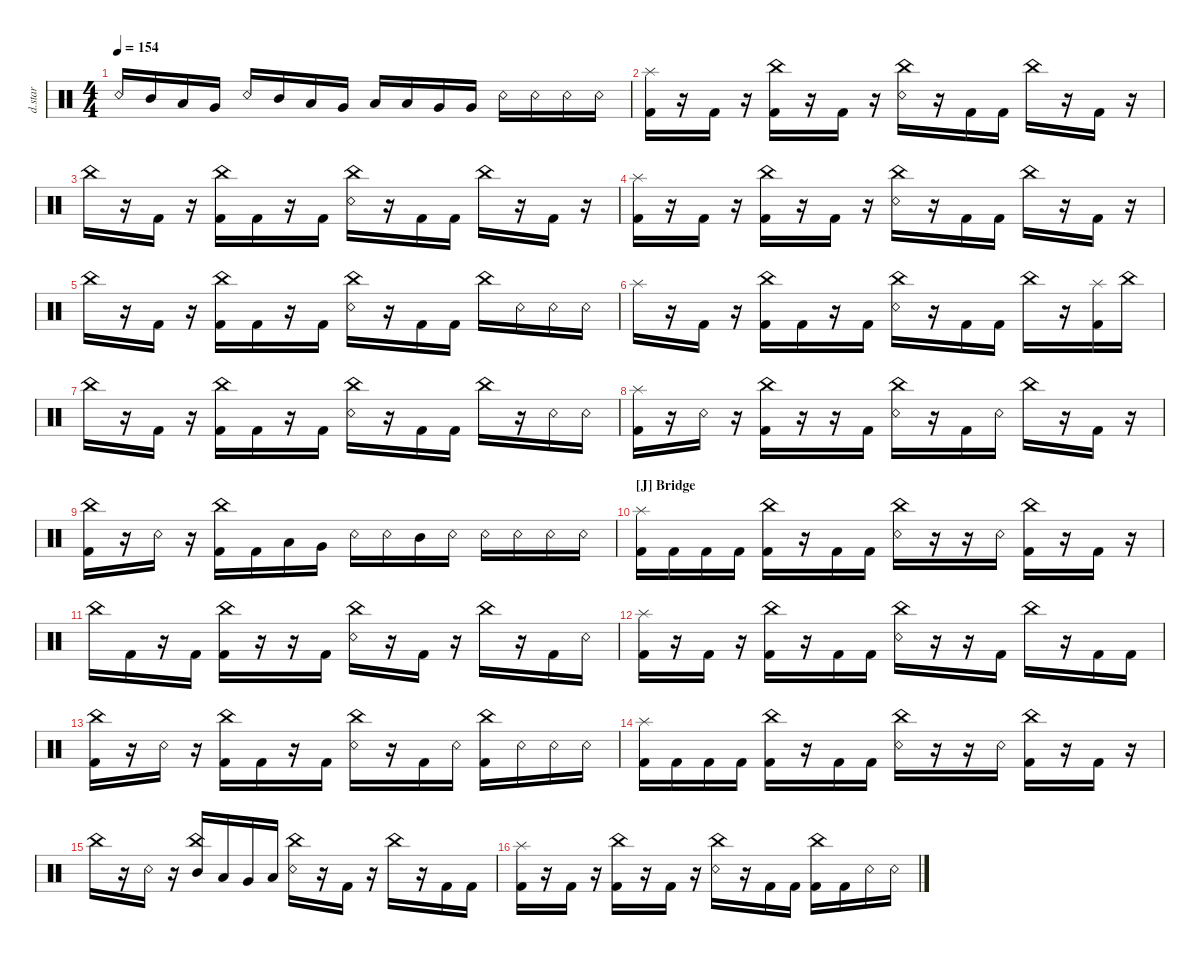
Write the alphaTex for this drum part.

\defaultSystemsLayout 4
\hideDynamics
\bracketExtendMode nobrackets
\otherSystemsTrackNameOrientation horizontal
\track ("Drumkit Star" "d.star") {instrument percussion}
\staff {score}
\articulation defaults
\ts (4 4)
\tempo 154
\clef neutral
\ks c "Snare (rim shot)".16{dy ff beam Up} "Mid Tom (hit)".16{beam Up} "Low Tom (hit)".16{beam Up} "Very Low Tom (hit)".16{beam Up} "Snare (rim shot)".16{beam Up} "Mid Tom (hit)".16{beam Up} "Low Tom (hit)".16{beam Up} "Very Low Tom (hit)".16{beam Up} "Low Tom (hit)".16{beam Up} "Low Tom (hit)".16{beam Up} "Very Low Tom (hit)".16{beam Up} "Very Low Tom (hit)".16{beam Up} "Snare (rim shot)".16{beam Down} "Snare (rim shot)".16{beam Down} "Snare (rim shot)".16{beam Down} "Snare (rim shot)".16{beam Down}
|
("Kick (hit) 2" "Splash (hit)").16{beam Down} r.16{beam Down} "Kick (hit) 2".16{beam Down} r.16{beam Down} ("Kick (hit) 2" "China (hit)").16{beam Down} r.16{beam Down} "Kick (hit) 2".16{beam Down} r.16{beam Down} ("Snare (rim shot)" "China (hit)").16{beam Down} r.16{beam Down} "Kick (hit) 2".16{beam Down} "Kick (hit) 2".16{beam Down} "China (hit)".16{beam Down} r.16{beam Down} "Kick (hit) 2".16{beam Down} r.16{beam Down} |
"China (hit)".16{beam Down} r.16{beam Down} "Kick (hit) 2".16{beam Down} r.16{beam Down} ("Kick (hit) 2" "China (hit)").16{beam Down} "Kick (hit) 2".16{beam Down} r.16{beam Down} "Kick (hit) 2".16{beam Down} ("Snare (rim shot)" "China (hit)").16{beam Down} r.16{beam Down} "Kick (hit) 2".16{beam Down} "Kick (hit) 2".16{beam Down} "China (hit)".16{beam Down} r.16{beam Down} "Kick (hit) 2".16{beam Down} r.16{beam Down} |
("Kick (hit) 2" "Splash (hit)").16{beam Down} r.16{beam Down} "Kick (hit) 2".16{beam Down} r.16{beam Down} ("Kick (hit) 2" "China (hit)").16{beam Down} r.16{beam Down} "Kick (hit) 2".16{beam Down} r.16{beam Down} ("Snare (rim shot)" "China (hit)").16{beam Down} r.16{beam Down} "Kick (hit) 2".16{beam Down} "Kick (hit) 2".16{beam Down} "China (hit)".16{beam Down} r.16{beam Down} "Kick (hit) 2".16{beam Down} r.16{beam Down} |
"China (hit)".16{beam Down} r.16{beam Down} "Kick (hit) 2".16{beam Down} r.16{beam Down} ("Kick (hit) 2" "China (hit)").16{beam Down} "Kick (hit) 2".16{beam Down} r.16{beam Down} "Kick (hit) 2".16{beam Down} ("Snare (rim shot)" "China (hit)").16{beam Down} r.16{beam Down} "Kick (hit) 2".16{beam Down} "Kick (hit) 2".16{beam Down} "China (hit)".16{beam Down} "Snare (rim shot)".16{beam Down} "Snare (rim shot)".16{beam Down} "Snare (rim shot)".16{beam Down} |
"Splash (hit)".16{beam Down} r.16{beam Down} "Kick (hit) 2".16{beam Down} r.16{beam Down} ("Kick (hit) 2" "China (hit)").16{beam Down} "Kick (hit) 2".16{beam Down} r.16{beam Down} "Kick (hit) 2".16{beam Down} ("Snare (rim shot)" "China (hit)").16{beam Down} r.16{beam Down} "Kick (hit) 2".16{beam Down} "Kick (hit) 2".16{beam Down} "China (hit)".16{beam Down} r.16{beam Down} ("Splash (hit)" "Kick (hit) 2").16{beam Down} "China (hit)".16{beam Down} |
"China (hit)".16{beam Down} r.16{beam Down} "Kick (hit) 2".16{beam Down} r.16{beam Down} ("Kick (hit) 2" "China (hit)").16{beam Down} "Kick (hit) 2".16{beam Down} r.16{beam Down} "Kick (hit) 2".16{beam Down} ("Snare (rim shot)" "China (hit)").16{beam Down} r.16{beam Down} "Kick (hit) 2".16{beam Down} "Kick (hit) 2".16{beam Down} "China (hit)".16{beam Down} r.16{beam Down} "Snare (rim shot)".16{beam Down} "Snare (rim shot)".16{beam Down} |
("Kick (hit) 2" "Splash (hit)").16{beam Down} r.16{beam Down} "Snare (rim shot)".16{beam Down} r.16{beam Down} ("Kick (hit) 2" "China (hit)").16{beam Down} r.16{beam Down} r.16{beam Down} "Kick (hit) 2".16{beam Down} ("Snare (rim shot)" "China (hit)").16{beam Down} r.16{beam Down} "Kick (hit) 2".16{beam Down} "Snare (rim shot)".16{beam Down} "China (hit)".16{beam Down} r.16{beam Down} "Kick (hit) 2".16{beam Down} r.16{beam Down} |
("Kick (hit) 2" "China (hit)").16{beam Down} r.16{beam Down} "Snare (rim shot)".16{beam Down} r.16{beam Down} ("Kick (hit) 2" "China (hit)").16{beam Down} "Kick (hit) 2".16{beam Down} "Low Tom (hit)".16{beam Down} "Very Low Tom (hit)".16{beam Down} "Snare (rim shot)".16{beam Down} "Snare (rim shot)".16{beam Down} "Mid Tom (hit)".16{beam Down} "Snare (rim shot)".16{beam Down} "Snare (rim shot)".16{beam Down} "Snare (rim shot)".16{beam Down} "Snare (rim shot)".16{beam Down} "Snare (rim shot)".16{beam Down} |
\section ("J" "Bridge")
("Kick (hit) 2" "Splash (hit)").16{beam Down} "Kick (hit) 2".16{beam Down} "Kick (hit) 2".16{beam Down} "Kick (hit) 2".16{beam Down} ("Kick (hit) 2" "China (hit)").16{beam Down} r.16{beam Down} "Kick (hit) 2".16{beam Down} "Kick (hit) 2".16{beam Down} ("Snare (rim shot)" "China (hit)").16{beam Down} r.16{beam Down} r.16{beam Down} "Snare (rim shot)".16{beam Down} ("Kick (hit) 2" "China (hit)").16{beam Down} r.16{beam Down} "Kick (hit) 2".16{beam Down} r.16{beam Down} |
"China (hit)".16{beam Down} "Kick (hit) 2".16{beam Down} r.16{beam Down} "Kick (hit) 2".16{beam Down} ("Kick (hit) 2" "China (hit)").16{beam Down} r.16{beam Down} r.16{beam Down} "Kick (hit) 2".16{beam Down} ("Snare (rim shot)" "China (hit)").16{beam Down} r.16{beam Down} "Kick (hit) 2".16{beam Down} r.16{beam Down} "China (hit)".16{beam Down} r.16{beam Down} "Kick (hit) 2".16{beam Down} "Snare (rim shot)".16{beam Down} |
("Kick (hit) 2" "Splash (hit)").16{beam Down} r.16{beam Down} "Kick (hit) 2".16{beam Down} r.16{beam Down} ("Kick (hit) 2" "China (hit)").16{beam Down} r.16{beam Down} "Kick (hit) 2".16{beam Down} "Kick (hit) 2".16{beam Down} ("Snare (rim shot)" "China (hit)").16{beam Down} r.16{beam Down} r.16{beam Down} "Kick (hit) 2".16{beam Down} "China (hit)".16{beam Down} r.16{beam Down} "Kick (hit) 2".16{beam Down} "Kick (hit) 2".16{beam Down} |
("Kick (hit) 2" "China (hit)").16{beam Down} r.16{beam Down} "Snare (rim shot)".16{beam Down} r.16{beam Down} ("Kick (hit) 2" "China (hit)").16{beam Down} "Kick (hit) 2".16{beam Down} r.16{beam Down} "Kick (hit) 2".16{beam Down} ("Snare (rim shot)" "China (hit)").16{beam Down} r.16{beam Down} "Kick (hit) 2".16{beam Down} "Snare (rim shot)".16{beam Down} ("Kick (hit) 2" "China (hit)").16{beam Down} "Snare (rim shot)".16{beam Down} "Snare (rim shot)".16{beam Down} "Snare (rim shot)".16{beam Down} |
("Kick (hit) 2" "Splash (hit)").16{beam Down} "Kick (hit) 2".16{beam Down} "Kick (hit) 2".16{beam Down} "Kick (hit) 2".16{beam Down} ("Kick (hit) 2" "China (hit)").16{beam Down} r.16{beam Down} "Kick (hit) 2".16{beam Down} "Kick (hit) 2".16{beam Down} ("Snare (rim shot)" "China (hit)").16{beam Down} r.16{beam Down} r.16{beam Down} "Snare (rim shot)".16{beam Down} ("Kick (hit) 2" "China (hit)").16{beam Down} r.16{beam Down} "Kick (hit) 2".16{beam Down} r.16{beam Down} |
"China (hit)".16{beam Down} r.16{beam Down} "Snare (rim shot)".16{beam Down} r.16{beam Down} ("Mid Tom (hit)" "China (hit)").16{beam Up} "Low Tom (hit)".16{beam Up} "Very Low Tom (hit)".16{beam Up} "Low Tom (hit)".16{beam Up} ("Snare (rim shot)" "China (hit)").16{beam Down} r.16{beam Down} "Kick (hit) 2".16{beam Down} r.16{beam Down} "China (hit)".16{beam Down} r.16{beam Down} "Kick (hit) 2".16{beam Down} "Kick (hit) 2".16{beam Down} |
("Kick (hit) 2" "Splash (hit)").16{beam Down} r.16{beam Down} "Kick (hit) 2".16{beam Down} r.16{beam Down} ("Kick (hit) 2" "China (hit)").16{beam Down} r.16{beam Down} "Kick (hit) 2".16{beam Down} r.16{beam Down} ("Snare (rim shot)" "China (hit)").16{beam Down} r.16{beam Down} "Kick (hit) 2".16{beam Down} "Kick (hit) 2".16{beam Down} ("Kick (hit) 2" "China (hit)").16{beam Down} "Kick (hit) 2".16{beam Down} "Snare (rim shot)".16{beam Down} "Snare (rim shot)".16{beam Down}
